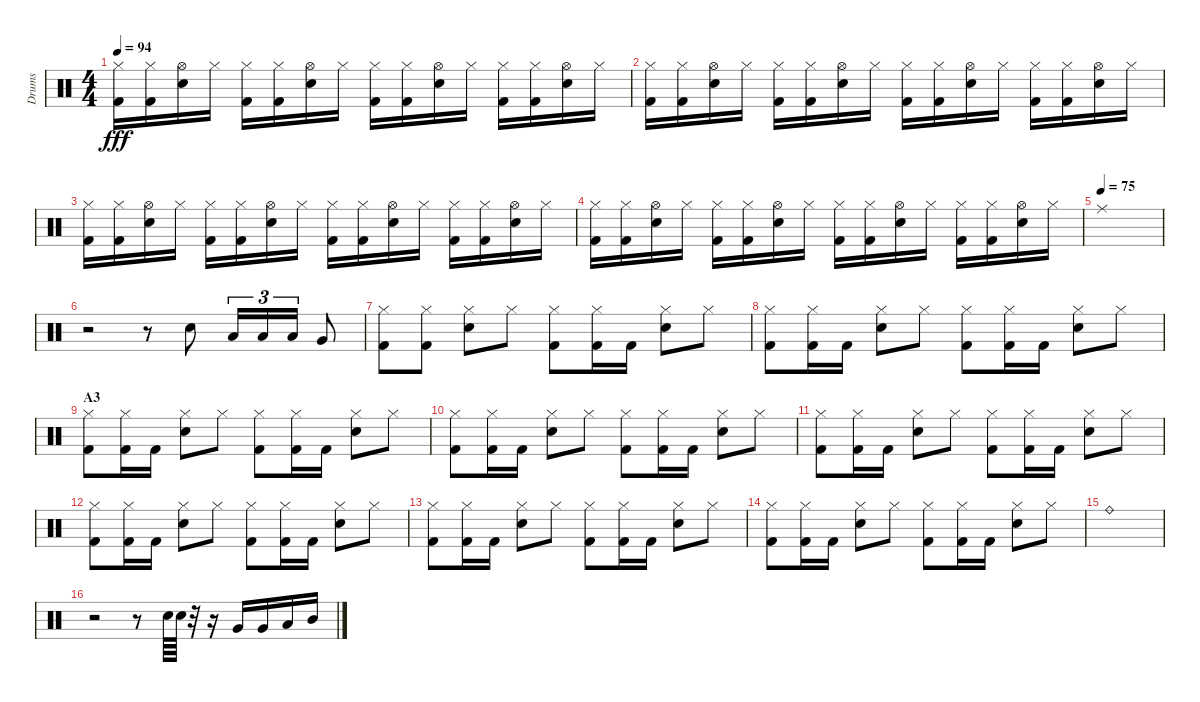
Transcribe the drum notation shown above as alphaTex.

\track ("Drums" "Drums") {instrument percussion}
\staff {score}
\articulation defaults
\ts (4 4)
\tempo 94
\clef neutral
\ks c
("Hi-Hat (closed)" "Kick (hit) 2").16{dy fff} ("Hi-Hat (closed)" "Kick (hit) 2").16 ("Hi-Hat (open)" "Snare (hit) 2").16 "Hi-Hat (closed)".16 ("Hi-Hat (closed)" "Kick (hit) 2").16 ("Hi-Hat (closed)" "Kick (hit) 2").16 ("Hi-Hat (open)" "Snare (hit) 2").16 "Hi-Hat (closed)".16 ("Hi-Hat (closed)" "Kick (hit) 2").16 ("Hi-Hat (closed)" "Kick (hit) 2").16 ("Hi-Hat (open)" "Snare (hit) 2").16 "Hi-Hat (closed)".16 ("Hi-Hat (closed)" "Kick (hit) 2").16 ("Hi-Hat (closed)" "Kick (hit) 2").16 ("Hi-Hat (open)" "Snare (hit) 2").16 "Hi-Hat (closed)".16 |
("Hi-Hat (closed)" "Kick (hit) 2").16 ("Hi-Hat (closed)" "Kick (hit) 2").16 ("Hi-Hat (open)" "Snare (hit) 2").16 "Hi-Hat (closed)".16 ("Hi-Hat (closed)" "Kick (hit) 2").16 ("Hi-Hat (closed)" "Kick (hit) 2").16 ("Hi-Hat (open)" "Snare (hit) 2").16 "Hi-Hat (closed)".16 ("Hi-Hat (closed)" "Kick (hit) 2").16 ("Hi-Hat (closed)" "Kick (hit) 2").16 ("Hi-Hat (open)" "Snare (hit) 2").16 "Hi-Hat (closed)".16 ("Hi-Hat (closed)" "Kick (hit) 2").16 ("Hi-Hat (closed)" "Kick (hit) 2").16 ("Hi-Hat (open)" "Snare (hit) 2").16 "Hi-Hat (closed)".16 |
("Hi-Hat (closed)" "Kick (hit) 2").16 ("Hi-Hat (closed)" "Kick (hit) 2").16 ("Hi-Hat (open)" "Snare (hit) 2").16 "Hi-Hat (closed)".16 ("Hi-Hat (closed)" "Kick (hit) 2").16 ("Hi-Hat (closed)" "Kick (hit) 2").16 ("Hi-Hat (open)" "Snare (hit) 2").16 "Hi-Hat (closed)".16 ("Hi-Hat (closed)" "Kick (hit) 2").16 ("Hi-Hat (closed)" "Kick (hit) 2").16 ("Hi-Hat (open)" "Snare (hit) 2").16 "Hi-Hat (closed)".16 ("Hi-Hat (closed)" "Kick (hit) 2").16 ("Hi-Hat (closed)" "Kick (hit) 2").16 ("Hi-Hat (open)" "Snare (hit) 2").16 "Hi-Hat (closed)".16 |
("Hi-Hat (closed)" "Kick (hit) 2").16 ("Hi-Hat (closed)" "Kick (hit) 2").16 ("Hi-Hat (open)" "Snare (hit) 2").16 "Hi-Hat (closed)".16 ("Hi-Hat (closed)" "Kick (hit) 2").16 ("Hi-Hat (closed)" "Kick (hit) 2").16 ("Hi-Hat (open)" "Snare (hit) 2").16 "Hi-Hat (closed)".16 ("Hi-Hat (closed)" "Kick (hit) 2").16 ("Hi-Hat (closed)" "Kick (hit) 2").16 ("Hi-Hat (open)" "Snare (hit) 2").16 "Hi-Hat (closed)".16 ("Hi-Hat (closed)" "Kick (hit) 2").16 ("Hi-Hat (closed)" "Kick (hit) 2").16 ("Hi-Hat (open)" "Snare (hit) 2").16 "Hi-Hat (closed)".16 |
\tempo (75)
"Ride (middle)".1 |
r.2 r.8 "Snare (hit) 2".8 "Low Tom (hit)".16{tu (3 2)} "Low Tom (hit)".16{tu (3 2)} "Low Tom (hit)".16{tu (3 2)} "Very Low Tom (hit)".8 |
("Hi-Hat (closed)" "Kick (hit) 2").8 ("Hi-Hat (closed)" "Kick (hit) 2").8 ("Hi-Hat (closed)" "Snare (hit) 2").8 "Hi-Hat (closed)".8 ("Hi-Hat (closed)" "Kick (hit) 2").8 ("Hi-Hat (closed)" "Kick (hit) 2").16 "Kick (hit) 2".16 ("Hi-Hat (closed)" "Snare (hit) 2").8 "Hi-Hat (closed)".8 |
("Hi-Hat (closed)" "Kick (hit) 2").8 ("Hi-Hat (closed)" "Kick (hit) 2").16 "Kick (hit) 2".16 ("Hi-Hat (closed)" "Snare (hit) 2").8 "Hi-Hat (closed)".8 ("Hi-Hat (closed)" "Kick (hit) 2").8 ("Hi-Hat (closed)" "Kick (hit) 2").16 "Kick (hit) 2".16 ("Hi-Hat (closed)" "Snare (hit) 2").8 "Hi-Hat (closed)".8 |
\section ("" "A3")
("Hi-Hat (closed)" "Kick (hit) 2").8 ("Hi-Hat (closed)" "Kick (hit) 2").16 "Kick (hit) 2".16 ("Hi-Hat (closed)" "Snare (hit) 2").8 "Hi-Hat (closed)".8 ("Hi-Hat (closed)" "Kick (hit) 2").8 ("Hi-Hat (closed)" "Kick (hit) 2").16 "Kick (hit) 2".16 ("Hi-Hat (closed)" "Snare (hit) 2").8 "Hi-Hat (closed)".8 |
("Hi-Hat (closed)" "Kick (hit) 2").8 ("Hi-Hat (closed)" "Kick (hit) 2").16 "Kick (hit) 2".16 ("Hi-Hat (closed)" "Snare (hit) 2").8 "Hi-Hat (closed)".8 ("Hi-Hat (closed)" "Kick (hit) 2").8 ("Hi-Hat (closed)" "Kick (hit) 2").16 "Kick (hit) 2".16 ("Hi-Hat (closed)" "Snare (hit) 2").8 "Hi-Hat (closed)".8 |
("Hi-Hat (closed)" "Kick (hit) 2").8 ("Hi-Hat (closed)" "Kick (hit) 2").16 "Kick (hit) 2".16 ("Hi-Hat (closed)" "Snare (hit) 2").8 "Hi-Hat (closed)".8 ("Hi-Hat (closed)" "Kick (hit) 2").8 ("Hi-Hat (closed)" "Kick (hit) 2").16 "Kick (hit) 2".16 ("Hi-Hat (closed)" "Snare (hit) 2").8 "Hi-Hat (closed)".8 |
("Hi-Hat (closed)" "Kick (hit) 2").8 ("Hi-Hat (closed)" "Kick (hit) 2").16 "Kick (hit) 2".16 ("Hi-Hat (closed)" "Snare (hit) 2").8 "Hi-Hat (closed)".8 ("Hi-Hat (closed)" "Kick (hit) 2").8 ("Hi-Hat (closed)" "Kick (hit) 2").16 "Kick (hit) 2".16 ("Hi-Hat (closed)" "Snare (hit) 2").8 "Hi-Hat (closed)".8 |
("Hi-Hat (closed)" "Kick (hit) 2").8 ("Hi-Hat (closed)" "Kick (hit) 2").16 "Kick (hit) 2".16 ("Hi-Hat (closed)" "Snare (hit) 2").8 "Hi-Hat (closed)".8 ("Hi-Hat (closed)" "Kick (hit) 2").8 ("Hi-Hat (closed)" "Kick (hit) 2").16 "Kick (hit) 2".16 ("Hi-Hat (closed)" "Snare (hit) 2").8 "Hi-Hat (closed)".8 |
("Hi-Hat (closed)" "Kick (hit) 2").8 ("Hi-Hat (closed)" "Kick (hit) 2").16 "Kick (hit) 2".16 ("Hi-Hat (closed)" "Snare (hit) 2").8 "Hi-Hat (closed)".8 ("Hi-Hat (closed)" "Kick (hit) 2").8 ("Hi-Hat (closed)" "Kick (hit) 2").16 "Kick (hit) 2".16 ("Hi-Hat (closed)" "Snare (hit) 2").8 "Hi-Hat (closed)".8 |
"Ride (bell)".1 |
r.2 r.8 "Snare (hit) 2".64 "Snare (hit) 2".64 r.32 r.16 "Very Low Tom (hit)".16 "Very Low Tom (hit)".16 "Low Tom (hit)".16 "Mid Tom (hit)".16
